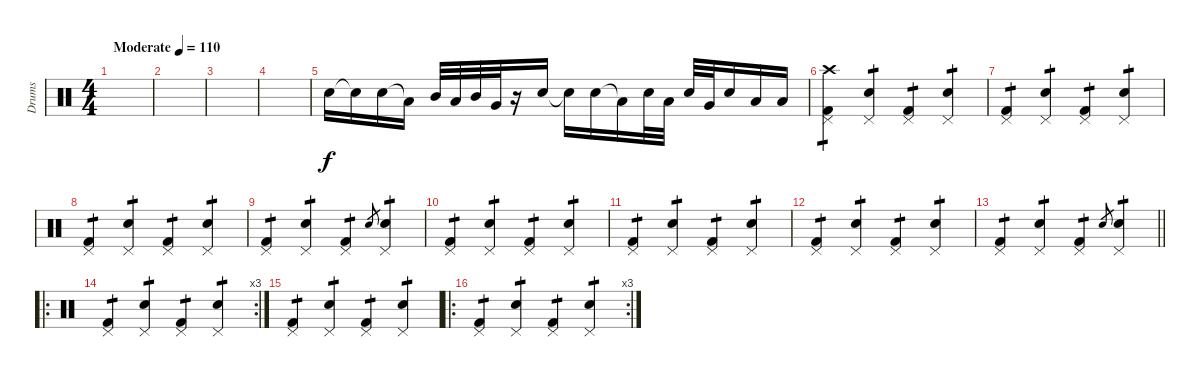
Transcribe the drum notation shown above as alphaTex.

\track ("Drums" "Drums") {instrument percussion}
\staff {score}
\articulation defaults
\ts (4 4)
\tempo (110 "Moderate")
\clef neutral
\ks c
|
|
|
|
"Snare (hit) 2".16 "Snare (hit) 2"{t}.16 "Snare (hit) 2".16 "Low Tom (hit)"{t}.16 "Mid Tom (hit)".32 "Low Tom (hit)".32 "Mid Tom (hit)".32 "Very Low Tom (hit)".32 r.16 "Snare (hit) 2".16 "Snare (hit) 2"{t}.16 "Snare (hit) 2".16 "Low Tom (hit)"{t}.16 "Snare (hit) 2".32 "Low Tom (hit)".32 "Snare (hit) 2".32 "Very Low Tom (hit)".32 "Snare (hit) 2".16 "Low Floor Tom (hit)".16 "Low Floor Tom (hit)".16 |
("Crash high (hit)" "Kick (hit) 2" "Pedal Hi-Hat (hit)").4{tp 1} ("Snare (hit) 2" "Pedal Hi-Hat (hit)").4{tp 1} ("Kick (hit) 2" "Pedal Hi-Hat (hit)").4{tp 1} ("Snare (hit) 2" "Pedal Hi-Hat (hit)").4{tp 1} |
("Kick (hit) 2" "Pedal Hi-Hat (hit)").4{tp 1} ("Snare (hit) 2" "Pedal Hi-Hat (hit)").4{tp 1} ("Kick (hit) 2" "Pedal Hi-Hat (hit)").4{tp 1} ("Snare (hit) 2" "Pedal Hi-Hat (hit)").4{tp 1} |
("Kick (hit) 2" "Pedal Hi-Hat (hit)").4{tp 1} ("Snare (hit) 2" "Pedal Hi-Hat (hit)").4{tp 1} ("Kick (hit) 2" "Pedal Hi-Hat (hit)").4{tp 1} ("Snare (hit) 2" "Pedal Hi-Hat (hit)").4{tp 1} |
("Kick (hit) 2" "Pedal Hi-Hat (hit)").4{tp 1} ("Snare (hit) 2" "Pedal Hi-Hat (hit)").4{tp 1} ("Kick (hit) 2" "Pedal Hi-Hat (hit)").4{tp 1} "Snare (hit) 2".8{gr} ("Snare (hit) 2" "Pedal Hi-Hat (hit)").4{tp 1} |
("Kick (hit) 2" "Pedal Hi-Hat (hit)").4{tp 1} ("Snare (hit) 2" "Pedal Hi-Hat (hit)").4{tp 1} ("Kick (hit) 2" "Pedal Hi-Hat (hit)").4{tp 1} ("Snare (hit) 2" "Pedal Hi-Hat (hit)").4{tp 1} |
("Kick (hit) 2" "Pedal Hi-Hat (hit)").4{tp 1} ("Snare (hit) 2" "Pedal Hi-Hat (hit)").4{tp 1} ("Kick (hit) 2" "Pedal Hi-Hat (hit)").4{tp 1} ("Snare (hit) 2" "Pedal Hi-Hat (hit)").4{tp 1} |
("Kick (hit) 2" "Pedal Hi-Hat (hit)").4{tp 1} ("Snare (hit) 2" "Pedal Hi-Hat (hit)").4{tp 1} ("Kick (hit) 2" "Pedal Hi-Hat (hit)").4{tp 1} ("Snare (hit) 2" "Pedal Hi-Hat (hit)").4{tp 1} |
\barLineRight lightlight
("Kick (hit) 2" "Pedal Hi-Hat (hit)").4{tp 1} ("Snare (hit) 2" "Pedal Hi-Hat (hit)").4{tp 1} ("Kick (hit) 2" "Pedal Hi-Hat (hit)").4{tp 1} "Snare (hit) 2".8{gr} ("Snare (hit) 2" "Pedal Hi-Hat (hit)").4{tp 1} |
\ro
\rc 3
("Kick (hit) 2" "Pedal Hi-Hat (hit)").4{tp 1} ("Snare (hit) 2" "Pedal Hi-Hat (hit)").4{tp 1} ("Kick (hit) 2" "Pedal Hi-Hat (hit)").4{tp 1} ("Snare (hit) 2" "Pedal Hi-Hat (hit)").4{tp 1} |
("Kick (hit) 2" "Pedal Hi-Hat (hit)").4{tp 1} ("Snare (hit) 2" "Pedal Hi-Hat (hit)").4{tp 1} ("Kick (hit) 2" "Pedal Hi-Hat (hit)").4{tp 1} ("Snare (hit) 2" "Pedal Hi-Hat (hit)").4{tp 1} |
\ro
\rc 3
("Kick (hit) 2" "Pedal Hi-Hat (hit)").4{tp 1} ("Snare (hit) 2" "Pedal Hi-Hat (hit)").4{tp 1} ("Kick (hit) 2" "Pedal Hi-Hat (hit)").4{tp 1} ("Snare (hit) 2" "Pedal Hi-Hat (hit)").4{tp 1}
